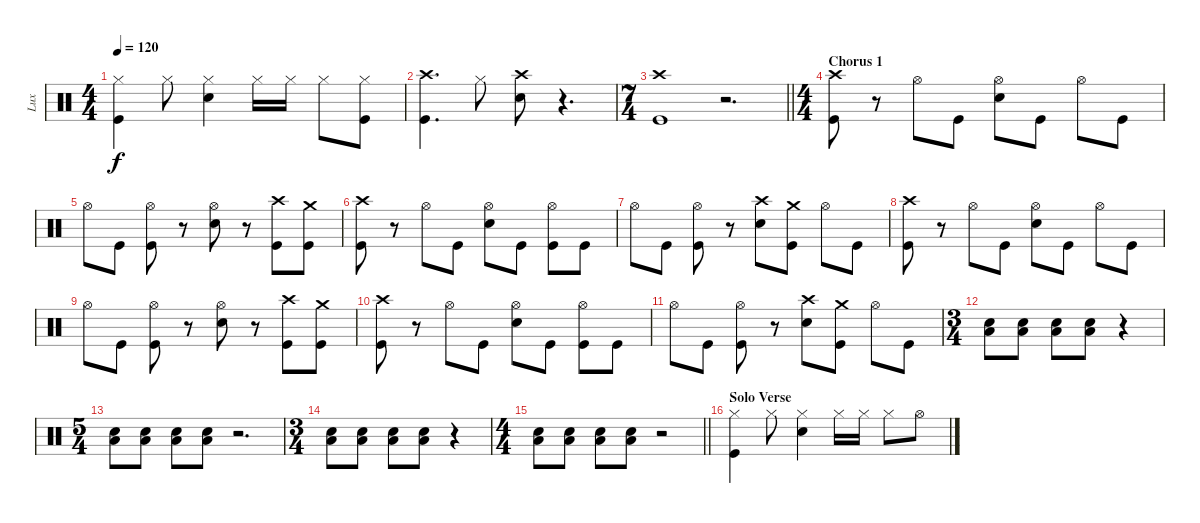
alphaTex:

\track ("Lux" "Lux") {instrument percussion}
\staff {score}
\articulation defaults
\ts (4 4)
\tempo 120
\clef neutral
\ks c
("Hi-Hat (closed)" "Kick (hit)").4{dy f} "Hi-Hat (closed)".8 ("Hi-Hat (closed)" "Snare (hit) 2").4 "Hi-Hat (closed)".16 "Hi-Hat (closed)".16 "Hi-Hat (closed)".8 ("Hi-Hat (closed)" "Kick (hit)").8 |
("Crash high (hit)" "Kick (hit)").4{d} "Hi-Hat (closed)".8 ("Crash high (hit)" "Snare (hit) 2").8 r.4{d} |
\ts (7 4)
\barLineRight lightlight
("Crash high (hit)" "Kick (hit)").1 r.2{d} |
\ts (4 4)
\section ("" "Chorus 1")
("Crash high (hit)" "Kick (hit)").8 r.8 "Hi-Hat (open)".8 "Kick (hit)".8 ("Hi-Hat (open)" "Snare (hit) 2").8 "Kick (hit)".8 "Hi-Hat (open)".8 "Kick (hit)".8 |
"Hi-Hat (open)".8 "Kick (hit)".8 ("Hi-Hat (open)" "Kick (hit)").8 r.8 ("Hi-Hat (open)" "Snare (hit) 2").8 r.8 ("Crash high (hit)" "Kick (hit)").8 ("Crash medium (hit)" "Kick (hit)").8 |
("Crash high (hit)" "Kick (hit)").8 r.8 "Hi-Hat (open)".8 "Kick (hit)".8 ("Hi-Hat (open)" "Snare (hit) 2").8 "Kick (hit)".8 ("Hi-Hat (open)" "Kick (hit)").8 "Kick (hit)".8 |
"Hi-Hat (open)".8 "Kick (hit)".8 ("Hi-Hat (open)" "Kick (hit)").8 r.8 ("Crash high (hit)" "Snare (hit) 2").8 ("Crash medium (hit)" "Kick (hit)").8 "Hi-Hat (open)".8 "Kick (hit)".8 |
("Crash high (hit)" "Kick (hit)").8 r.8 "Hi-Hat (open)".8 "Kick (hit)".8 ("Hi-Hat (open)" "Snare (hit) 2").8 "Kick (hit)".8 "Hi-Hat (open)".8 "Kick (hit)".8 |
"Hi-Hat (open)".8 "Kick (hit)".8 ("Hi-Hat (open)" "Kick (hit)").8 r.8 ("Hi-Hat (open)" "Snare (hit) 2").8 r.8 ("Crash high (hit)" "Kick (hit)").8 ("Crash medium (hit)" "Kick (hit)").8 |
("Crash high (hit)" "Kick (hit)").8 r.8 "Hi-Hat (open)".8 "Kick (hit)".8 ("Hi-Hat (open)" "Snare (hit) 2").8 "Kick (hit)".8 ("Hi-Hat (open)" "Kick (hit)").8 "Kick (hit)".8 |
"Hi-Hat (open)".8 "Kick (hit)".8 ("Hi-Hat (open)" "Kick (hit)").8 r.8 ("Crash high (hit)" "Snare (hit) 2").8 ("Crash medium (hit)" "Kick (hit)").8 "Hi-Hat (open)".8 "Kick (hit)".8 |
\ts (3 4)
("Snare (hit) 2" "Low Tom (hit)").8 ("Snare (hit) 2" "Low Tom (hit)").8 ("Snare (hit) 2" "Low Tom (hit)").8 ("Snare (hit) 2" "Low Tom (hit)").8 r.4 |
\ts (5 4)
("Snare (hit) 2" "Low Tom (hit)").8 ("Snare (hit) 2" "Low Tom (hit)").8 ("Snare (hit) 2" "Low Tom (hit)").8 ("Snare (hit) 2" "Low Tom (hit)").8 r.2{d} |
\ts (3 4)
("Snare (hit) 2" "Low Tom (hit)").8 ("Snare (hit) 2" "Low Tom (hit)").8 ("Snare (hit) 2" "Low Tom (hit)").8 ("Snare (hit) 2" "Low Tom (hit)").8 r.4 |
\ts (4 4)
\barLineRight lightlight
("Snare (hit) 2" "Low Tom (hit)").8 ("Snare (hit) 2" "Low Tom (hit)").8 ("Snare (hit) 2" "Low Tom (hit)").8 ("Snare (hit) 2" "Low Tom (hit)").8 r.2 |
\section ("" "Solo Verse")
("Hi-Hat (closed)" "Kick (hit)").4 "Hi-Hat (closed)".8 ("Hi-Hat (closed)" "Snare (hit) 2").4 "Hi-Hat (closed)".16 "Hi-Hat (closed)".16 "Hi-Hat (closed)".8 "Hi-Hat (open)".8
